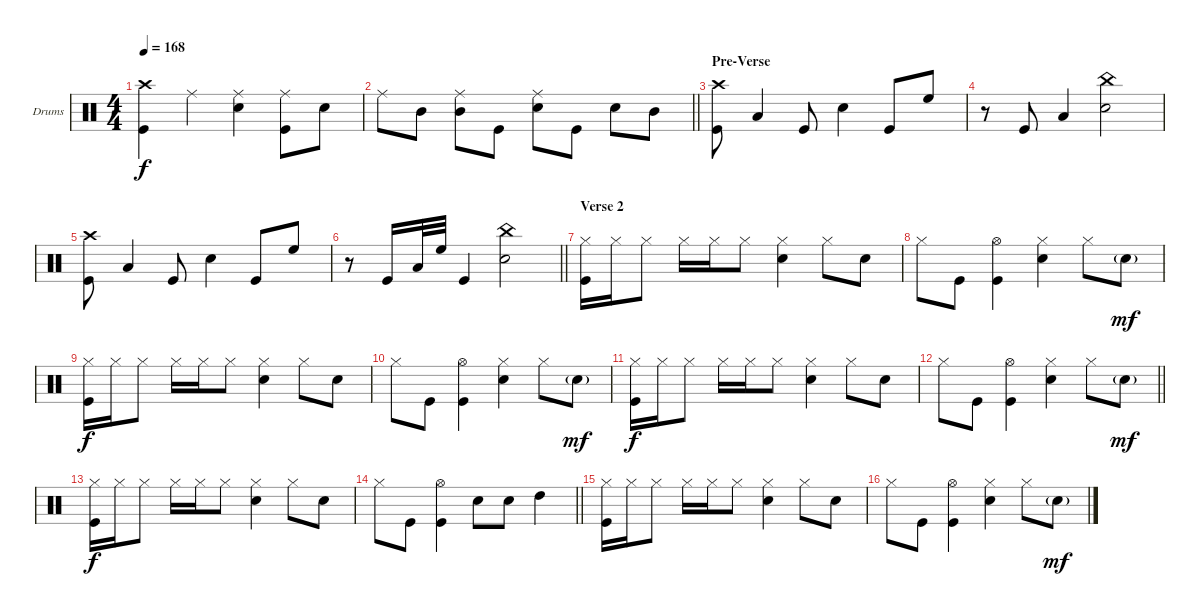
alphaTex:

\bracketExtendMode groupsimilarinstruments
\firstSystemTrackNameOrientation horizontal
\otherSystemsTrackNameOrientation horizontal
\track ("Drumkit" "Drums") {solo instrument percussion}
\staff {score}
\articulation defaults
\ts (4 4)
\tempo 168
\clef neutral
\ks c
("Crash high (hit)" "Kick (hit)").4{dy f} "Ride (middle)".4 ("Ride (middle)" "Snare (hit) 2").4 ("Ride (middle)" "Kick (hit)").8 "Snare (hit) 2".8 |
\barLineRight lightlight "Ride (middle)".8 "Mid Tom (hit)".8
("Ride (middle)" "Mid Tom (hit)").8 "Kick (hit)".8 ("Ride (middle)" "Snare (hit) 2").8 "Kick (hit)".8 "Snare (hit) 2".8 "Mid Tom (hit)".8 |
\section ("" "Pre-Verse")
("Crash high (hit)" "Kick (hit)").8 "Low Tom (hit)".4 "Kick (hit)".8 "Snare (hit) 2".4 "Kick (hit)".8 "High Floor Tom (hit)".8 |
r.8 "Kick (hit)".8 "Low Tom (hit)".4 ("China (hit)" "Snare (hit) 2").2 |
("Crash high (hit)" "Kick (hit)").8 "Low Tom (hit)".4 "Kick (hit)".8 "Snare (hit) 2".4 "Kick (hit)".8 "High Floor Tom (hit)".8 |
\barLineRight lightlight
r.8 "Kick (hit)".16 "Low Tom (hit)".32 "High Floor Tom (hit)".32 "Kick (hit)".4 ("China (hit)" "Snare (hit) 2").2 |
\section ("" "Verse 2")
("Hi-Hat (closed)" "Kick (hit)").16 "Hi-Hat (closed)".16 "Hi-Hat (closed)".8 "Hi-Hat (closed)".16 "Hi-Hat (closed)".16 "Hi-Hat (closed)".8 ("Hi-Hat (closed)" "Snare (hit) 2").4 "Hi-Hat (closed)".8 "Snare (hit) 2".8 |
"Hi-Hat (closed)".8 "Kick (hit)".8 ("Hi-Hat (open)" "Kick (hit)").4 ("Hi-Hat (closed)" "Snare (hit) 2").4 "Hi-Hat (closed)".8 "Snare (hit) 2"{g}.8{dy mf} |
("Hi-Hat (closed)" "Kick (hit)").16{dy f} "Hi-Hat (closed)".16 "Hi-Hat (closed)".8 "Hi-Hat (closed)".16 "Hi-Hat (closed)".16 "Hi-Hat (closed)".8 ("Hi-Hat (closed)" "Snare (hit) 2").4 "Hi-Hat (closed)".8 "Snare (hit) 2".8 |
"Hi-Hat (closed)".8 "Kick (hit)".8 ("Hi-Hat (open)" "Kick (hit)").4 ("Hi-Hat (closed)" "Snare (hit) 2").4 "Hi-Hat (closed)".8 "Snare (hit) 2"{g}.8{dy mf} |
("Hi-Hat (closed)" "Kick (hit)").16{dy f} "Hi-Hat (closed)".16 "Hi-Hat (closed)".8 "Hi-Hat (closed)".16 "Hi-Hat (closed)".16 "Hi-Hat (closed)".8 ("Hi-Hat (closed)" "Snare (hit) 2").4 "Hi-Hat (closed)".8 "Snare (hit) 2".8 |
\barLineRight lightlight "Hi-Hat (closed)".8 "Kick (hit)".8
("Hi-Hat (open)" "Kick (hit)").4 ("Hi-Hat (closed)" "Snare (hit) 2").4 "Hi-Hat (closed)".8 "Snare (hit) 2"{g}.8{dy mf} |
("Hi-Hat (closed)" "Kick (hit)").16{dy f} "Hi-Hat (closed)".16 "Hi-Hat (closed)".8 "Hi-Hat (closed)".16 "Hi-Hat (closed)".16 "Hi-Hat (closed)".8 ("Hi-Hat (closed)" "Snare (hit) 2").4 "Hi-Hat (closed)".8 "Snare (hit) 2".8 |
\barLineRight lightlight "Hi-Hat (closed)".8 "Kick (hit)".8
("Hi-Hat (open)" "Kick (hit)").4 "Snare (hit) 2".8 "Snare (hit) 2".8 "High Tom (hit)".4 |
("Hi-Hat (closed)" "Kick (hit)").16 "Hi-Hat (closed)".16 "Hi-Hat (closed)".8 "Hi-Hat (closed)".16 "Hi-Hat (closed)".16 "Hi-Hat (closed)".8 ("Hi-Hat (closed)" "Snare (hit) 2").4 "Hi-Hat (closed)".8 "Snare (hit) 2".8 |
"Hi-Hat (closed)".8 "Kick (hit)".8 ("Hi-Hat (open)" "Kick (hit)").4 ("Hi-Hat (closed)" "Snare (hit) 2").4 "Hi-Hat (closed)".8 "Snare (hit) 2"{g}.8{dy mf}
